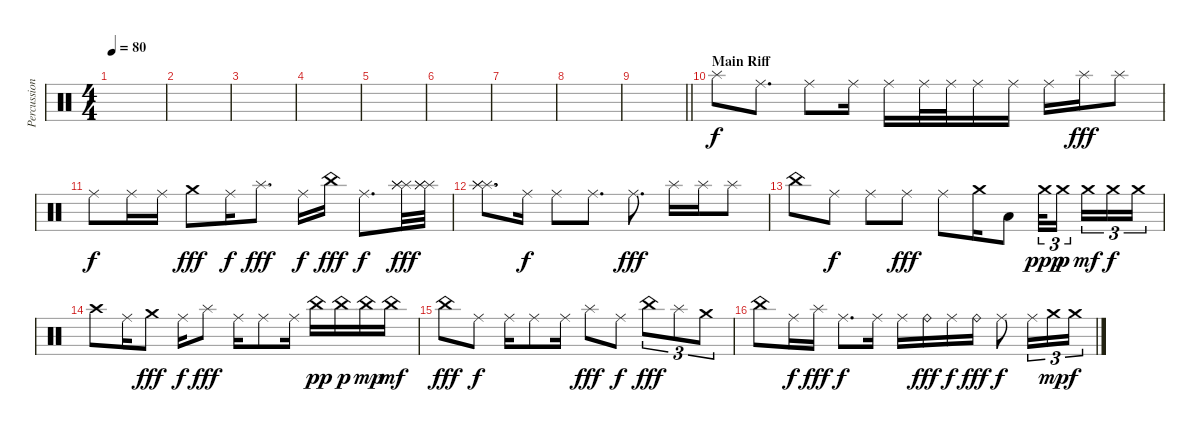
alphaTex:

\track ("Percussions" "Percussion") {instrument percussion}
\staff {score}
\articulation defaults
\ts (4 4)
\tempo 80
\clef neutral
\ks c
|
|
|
|
|
|
|
|
\barLineRight lightlight
|
\section ("" "Main Riff")
"Splash (hit)".8 "Ride (middle)".8{d dy f} "Ride (middle)".8 "Ride (middle)".16 "Ride (middle)".16 "Ride (middle)".32 "Ride (middle)".32 "Ride (middle)".16 "Ride (middle)".16 "Ride (middle)".16 "Splash (hit)".16{dy fff} "Splash (hit)".8 |
"Ride (middle)".8{dy f} "Ride (middle)".16 "Ride (middle)".16 "Crash medium (hit)".8{dy fff} "Ride (middle)".16{dy f} "Splash (hit)".8{d dy fff} "Ride (middle)".16{dy f} "China (hit)".16{dy fff} "Ride (middle)".8{d dy f} ("Splash (hit)" "Splash (hit)" "Splash (hit)").32{dy fff} ("Splash (hit)" "Splash (hit)" "Splash (hit)").32 |
("Splash (hit)" "Splash (hit)" "Splash (hit)").8{d} "Ride (middle)".16{dy f} "Ride (middle)".8 "Ride (middle)".8{d} "Ride (middle)".8{d dy fff} "Splash (hit)".16 "Splash (hit)".16 "Splash (hit)".8 |
"China (hit)".8 "Ride (middle)".8{dy f} "Ride (middle)".8 "Ride (middle)".8{dy fff} "Ride (middle)".8 "Crash medium (hit)".16 "Low Floor Tom (hit)".8 "Crash medium (hit)".32{tu (3 2) dy ppp} "Crash medium (hit)".16{tu (3 2) dy p beam splitsecondary} "Crash medium (hit)".16{tu (3 2) dy mf} "Crash medium (hit)".16{tu (3 2) dy f} "Crash medium (hit)".16{tu (3 2)} |
"Crash high (hit)".8 "Ride (middle)".16 "Crash medium (hit)".8{dy fff} "Ride (middle)".16{dy f} "Splash (hit)".8{dy fff} "Ride (middle)".16 "Ride (middle)".8 "Ride (middle)".16 "China (hit)".16{dy pp} "China (hit)".16{dy p} "China (hit)".16{dy mp} "China (hit)".16{dy mf} |
"China (hit)".8{dy fff} "Ride (middle)".8{dy f} "Ride (middle)".16 "Ride (middle)".8 "Ride (middle)".16 "Splash (hit)".8{dy fff} "Ride (middle)".8{dy f} "China (hit)".8{tu (3 2) dy fff} "Splash (hit)".8{tu (3 2)} "Crash medium (hit)".8{tu (3 2)} |
"China (hit)".8 "Ride (middle)".16{dy f} "Splash (hit)".16{dy fff} "Ride (middle)".8{d dy f} "Ride (middle)".16 "Ride (middle)".16 "Ride (bell)".16{dy fff} "Ride (middle)".16{dy f} "Ride (bell)".16{dy fff} "Ride (middle)".8{dy f} "Ride (middle)".16{tu (3 2)} "Crash medium (hit)".16{tu (3 2) dy mp} "Crash medium (hit)".16{tu (3 2) dy f}
